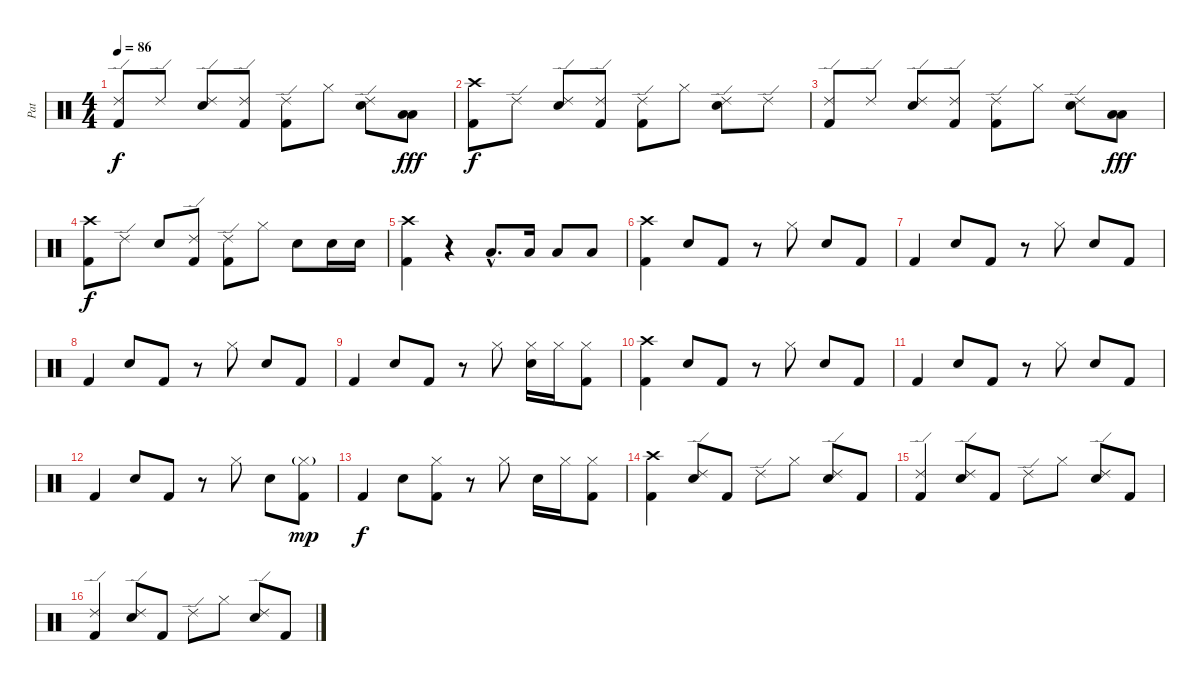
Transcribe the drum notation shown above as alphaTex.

\track ("Pat" "Pat") {instrument percussion}
\staff {score}
\articulation defaults
\ts (4 4)
\tempo 86
\clef neutral
\ks c
("Ride (edge) 2" "Kick (hit) 2").8{dy f} "Ride (edge) 2".8 ("Ride (edge) 2" "Snare (hit) 2").8 ("Ride (edge) 2" "Kick (hit) 2").8 ("Ride (edge) 2" "Kick (hit) 2").8 "Hi-Hat (closed)".8 ("Ride (edge) 2" "Snare (hit) 2").8 ("Low Floor Tom (hit)" "Low Floor Tom (hit)").8{dy fff} |
("Crash high (hit)" "Kick (hit) 2").8{dy f} "Ride (edge) 2".8 ("Ride (edge) 2" "Snare (hit) 2").8 ("Ride (edge) 2" "Kick (hit) 2").8 ("Ride (edge) 2" "Kick (hit) 2").8 "Hi-Hat (closed)".8 ("Ride (edge) 2" "Snare (hit) 2").8 "Ride (edge) 2".8 |
("Ride (edge) 2" "Kick (hit) 2").8 "Ride (edge) 2".8 ("Ride (edge) 2" "Snare (hit) 2").8 ("Ride (edge) 2" "Kick (hit) 2").8 ("Ride (edge) 2" "Kick (hit) 2").8 "Hi-Hat (closed)".8 ("Ride (edge) 2" "Snare (hit) 2").8 ("Low Floor Tom (hit)" "Low Floor Tom (hit)").8{dy fff} |
("Crash high (hit)" "Kick (hit) 2").8{dy f} "Ride (edge) 2".8 "Snare (hit) 2".8 ("Ride (edge) 2" "Kick (hit) 2").8 ("Ride (edge) 2" "Kick (hit) 2").8 "Hi-Hat (closed)".8 "Snare (hit) 2".8 "Snare (hit) 2".16 "Snare (hit) 2".16 |
("Crash high (hit)" "Kick (hit) 2").4 r.4 "Low Tom (hit)"{hac}.8{d} "Low Tom (hit)".16 "Low Tom (hit)".8 "Low Floor Tom (hit)".8 |
("Crash high (hit)" "Kick (hit) 2").4 "Snare (hit) 2".8 "Kick (hit) 2".8 r.8 "Hi-Hat (closed)".8 "Snare (hit) 2".8 "Kick (hit) 2".8 |
"Kick (hit) 2".4 "Snare (hit) 2".8 "Kick (hit) 2".8 r.8 "Hi-Hat (closed)".8 "Snare (hit) 2".8 "Kick (hit) 2".8 |
"Kick (hit) 2".4 "Snare (hit) 2".8 "Kick (hit) 2".8 r.8 "Hi-Hat (closed)".8 "Snare (hit) 2".8 "Kick (hit) 2".8 |
"Kick (hit) 2".4 "Snare (hit) 2".8 "Kick (hit) 2".8 r.8 "Hi-Hat (closed)".8 ("Hi-Hat (closed)" "Snare (hit) 2").16 "Hi-Hat (closed)".16 ("Hi-Hat (closed)" "Kick (hit) 2").8 |
("Crash high (hit)" "Kick (hit) 2").4 "Snare (hit) 2".8 "Kick (hit) 2".8 r.8 "Hi-Hat (closed)".8 "Snare (hit) 2".8 "Kick (hit) 2".8 |
"Kick (hit) 2".4 "Snare (hit) 2".8 "Kick (hit) 2".8 r.8 "Hi-Hat (closed)".8 "Snare (hit) 2".8 "Kick (hit) 2".8 |
"Kick (hit) 2".4 "Snare (hit) 2".8 "Kick (hit) 2".8 r.8 "Hi-Hat (closed)".8 "Snare (hit) 2".8 ("Hi-Hat (closed)"{g} "Kick (hit) 2").8{dy mp} |
"Kick (hit) 2".4{dy f} "Snare (hit) 2".8 ("Hi-Hat (closed)" "Kick (hit) 2").8 r.8 "Hi-Hat (closed)".8 "Snare (hit) 2".16 "Hi-Hat (closed)".16 ("Hi-Hat (closed)" "Kick (hit) 2").8 |
("Crash high (hit)" "Kick (hit) 2").4 ("Ride (edge) 2" "Snare (hit) 2").8 "Kick (hit) 2".8 "Ride (edge) 2".8 "Hi-Hat (closed)".8 ("Ride (edge) 2" "Snare (hit) 2").8 "Kick (hit) 2".8 |
("Ride (edge) 2" "Kick (hit) 2").4 ("Ride (edge) 2" "Snare (hit) 2").8 "Kick (hit) 2".8 "Ride (edge) 2".8 "Hi-Hat (closed)".8 ("Ride (edge) 2" "Snare (hit) 2").8 "Kick (hit) 2".8 |
("Ride (edge) 2" "Kick (hit) 2").4 ("Ride (edge) 2" "Snare (hit) 2").8 "Kick (hit) 2".8 "Ride (edge) 2".8 "Hi-Hat (closed)".8 ("Ride (edge) 2" "Snare (hit) 2").8 "Kick (hit) 2".8
